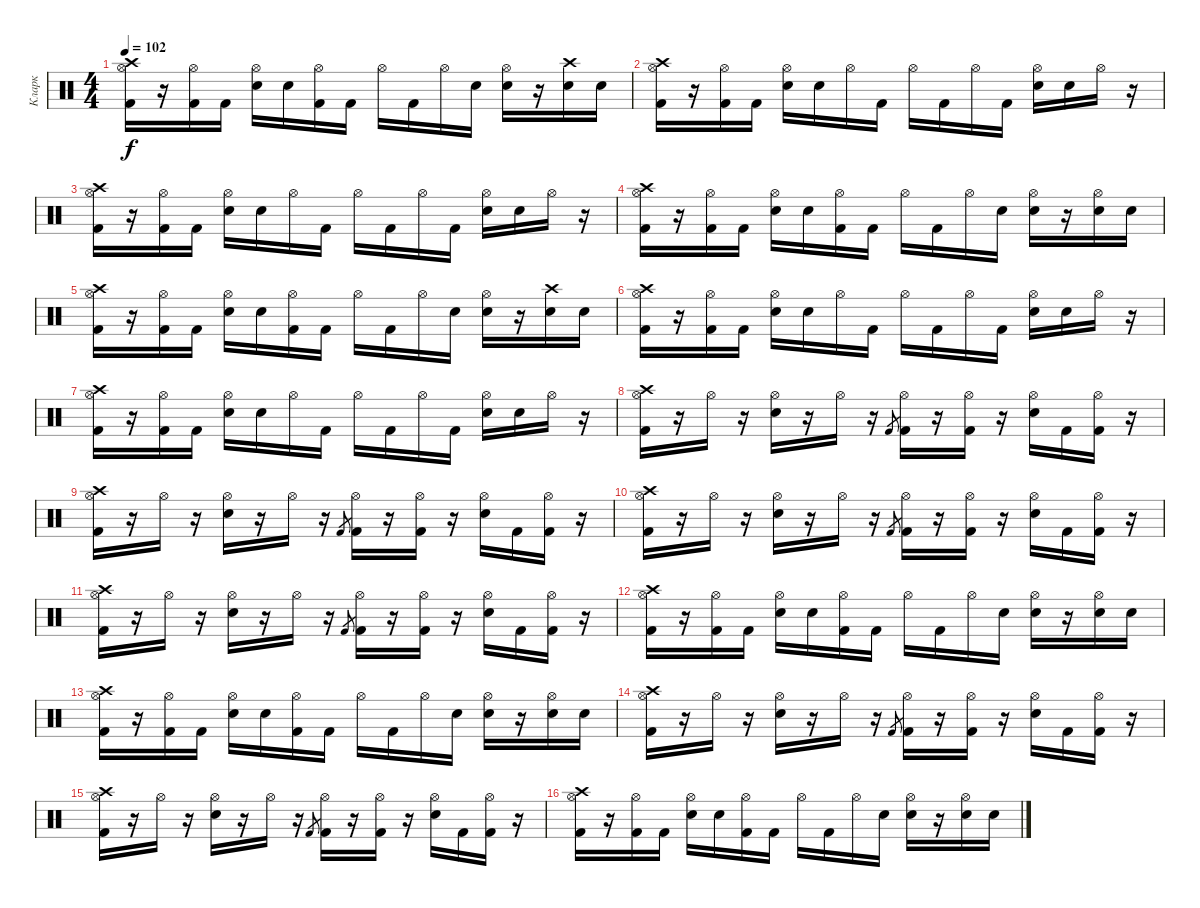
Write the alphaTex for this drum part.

\track ("Кларк" "Кларк") {instrument percussion}
\staff {score}
\articulation defaults
\ts (4 4)
\tempo 102
\clef neutral
\ks c
("Hi-Hat (open)" "Crash high (hit)" "Kick (hit) 2").16{dy f} r.16 ("Hi-Hat (open)" "Kick (hit) 2").16 "Kick (hit) 2".16 ("Hi-Hat (open)" "Electric Snare (hit)").16 "Electric Snare (hit)".16 ("Hi-Hat (open)" "Kick (hit) 2").16 "Kick (hit) 2".16 "Hi-Hat (open)".16 "Kick (hit) 2".16 "Hi-Hat (open)".16 "Electric Snare (hit)".16 ("Hi-Hat (open)" "Electric Snare (hit)").16 r.16 ("Crash high (hit)" "Electric Snare (hit)").16 "Electric Snare (hit)".16 |
("Hi-Hat (open)" "Crash high (hit)" "Kick (hit) 2").16 r.16 ("Hi-Hat (open)" "Kick (hit) 2").16 "Kick (hit) 2".16 ("Hi-Hat (open)" "Electric Snare (hit)").16 "Electric Snare (hit)".16 "Hi-Hat (open)".16 "Kick (hit) 2".16 "Hi-Hat (open)".16 "Kick (hit) 2".16 "Hi-Hat (open)".16 "Kick (hit) 2".16 ("Hi-Hat (open)" "Electric Snare (hit)").16 "Electric Snare (hit)".16 "Hi-Hat (open)".16 r.16 |
("Hi-Hat (open)" "Crash high (hit)" "Kick (hit) 2").16 r.16 ("Hi-Hat (open)" "Kick (hit) 2").16 "Kick (hit) 2".16 ("Hi-Hat (open)" "Electric Snare (hit)").16 "Electric Snare (hit)".16 "Hi-Hat (open)".16 "Kick (hit) 2".16 "Hi-Hat (open)".16 "Kick (hit) 2".16 "Hi-Hat (open)".16 "Kick (hit) 2".16 ("Hi-Hat (open)" "Electric Snare (hit)").16 "Electric Snare (hit)".16 "Hi-Hat (open)".16 r.16 |
("Hi-Hat (open)" "Crash high (hit)" "Kick (hit) 2").16 r.16 ("Hi-Hat (open)" "Kick (hit) 2").16 "Kick (hit) 2".16 ("Hi-Hat (open)" "Electric Snare (hit)").16 "Electric Snare (hit)".16 ("Hi-Hat (open)" "Kick (hit) 2").16 "Kick (hit) 2".16 "Hi-Hat (open)".16 "Kick (hit) 2".16 "Hi-Hat (open)".16 "Electric Snare (hit)".16 ("Hi-Hat (open)" "Electric Snare (hit)").16 r.16 ("Hi-Hat (open)" "Electric Snare (hit)").16 "Electric Snare (hit)".16 |
("Hi-Hat (open)" "Crash high (hit)" "Kick (hit) 2").16 r.16 ("Hi-Hat (open)" "Kick (hit) 2").16 "Kick (hit) 2".16 ("Hi-Hat (open)" "Electric Snare (hit)").16 "Electric Snare (hit)".16 ("Hi-Hat (open)" "Kick (hit) 2").16 "Kick (hit) 2".16 "Hi-Hat (open)".16 "Kick (hit) 2".16 "Hi-Hat (open)".16 "Electric Snare (hit)".16 ("Hi-Hat (open)" "Electric Snare (hit)").16 r.16 ("Crash high (hit)" "Electric Snare (hit)").16 "Electric Snare (hit)".16 |
("Hi-Hat (open)" "Crash high (hit)" "Kick (hit) 2").16 r.16 ("Hi-Hat (open)" "Kick (hit) 2").16 "Kick (hit) 2".16 ("Hi-Hat (open)" "Electric Snare (hit)").16 "Electric Snare (hit)".16 "Hi-Hat (open)".16 "Kick (hit) 2".16 "Hi-Hat (open)".16 "Kick (hit) 2".16 "Hi-Hat (open)".16 "Kick (hit) 2".16 ("Hi-Hat (open)" "Electric Snare (hit)").16 "Electric Snare (hit)".16 "Hi-Hat (open)".16 r.16 |
("Hi-Hat (open)" "Crash high (hit)" "Kick (hit) 2").16 r.16 ("Hi-Hat (open)" "Kick (hit) 2").16 "Kick (hit) 2".16 ("Hi-Hat (open)" "Electric Snare (hit)").16 "Electric Snare (hit)".16 "Hi-Hat (open)".16 "Kick (hit) 2".16 "Hi-Hat (open)".16 "Kick (hit) 2".16 "Hi-Hat (open)".16 "Kick (hit) 2".16 ("Hi-Hat (open)" "Electric Snare (hit)").16 "Electric Snare (hit)".16 "Hi-Hat (open)".16 r.16 |
("Hi-Hat (open)" "Crash high (hit)" "Kick (hit) 2").16 r.16 "Hi-Hat (open)".16 r.16 ("Hi-Hat (open)" "Electric Snare (hit)").16 r.16 "Hi-Hat (open)".16 r.16 "Kick (hit) 2".8{gr} ("Hi-Hat (open)" "Kick (hit) 2").16 r.16 ("Hi-Hat (open)" "Kick (hit) 2").16 r.16 ("Hi-Hat (open)" "Electric Snare (hit)").16 "Kick (hit) 2".16 ("Hi-Hat (open)" "Kick (hit) 2").16 r.16 |
("Hi-Hat (open)" "Crash high (hit)" "Kick (hit) 2").16 r.16 "Hi-Hat (open)".16 r.16 ("Hi-Hat (open)" "Electric Snare (hit)").16 r.16 "Hi-Hat (open)".16 r.16 "Kick (hit) 2".8{gr} ("Hi-Hat (open)" "Kick (hit) 2").16 r.16 ("Hi-Hat (open)" "Kick (hit) 2").16 r.16 ("Hi-Hat (open)" "Electric Snare (hit)").16 "Kick (hit) 2".16 ("Hi-Hat (open)" "Kick (hit) 2").16 r.16 |
("Hi-Hat (open)" "Crash high (hit)" "Kick (hit) 2").16 r.16 "Hi-Hat (open)".16 r.16 ("Hi-Hat (open)" "Electric Snare (hit)").16 r.16 "Hi-Hat (open)".16 r.16 "Kick (hit) 2".8{gr} ("Hi-Hat (open)" "Kick (hit) 2").16 r.16 ("Hi-Hat (open)" "Kick (hit) 2").16 r.16 ("Hi-Hat (open)" "Electric Snare (hit)").16 "Kick (hit) 2".16 ("Hi-Hat (open)" "Kick (hit) 2").16 r.16 |
("Hi-Hat (open)" "Crash high (hit)" "Kick (hit) 2").16 r.16 "Hi-Hat (open)".16 r.16 ("Hi-Hat (open)" "Electric Snare (hit)").16 r.16 "Hi-Hat (open)".16 r.16 "Kick (hit) 2".8{gr} ("Hi-Hat (open)" "Kick (hit) 2").16 r.16 ("Hi-Hat (open)" "Kick (hit) 2").16 r.16 ("Hi-Hat (open)" "Electric Snare (hit)").16 "Kick (hit) 2".16 ("Hi-Hat (open)" "Kick (hit) 2").16 r.16 |
("Hi-Hat (open)" "Crash high (hit)" "Kick (hit) 2").16 r.16 ("Hi-Hat (open)" "Kick (hit) 2").16 "Kick (hit) 2".16 ("Hi-Hat (open)" "Electric Snare (hit)").16 "Electric Snare (hit)".16 ("Hi-Hat (open)" "Kick (hit) 2").16 "Kick (hit) 2".16 "Hi-Hat (open)".16 "Kick (hit) 2".16 "Hi-Hat (open)".16 "Electric Snare (hit)".16 ("Hi-Hat (open)" "Electric Snare (hit)").16 r.16 ("Hi-Hat (open)" "Electric Snare (hit)").16 "Electric Snare (hit)".16 |
("Hi-Hat (open)" "Crash high (hit)" "Kick (hit) 2").16 r.16 ("Hi-Hat (open)" "Kick (hit) 2").16 "Kick (hit) 2".16 ("Hi-Hat (open)" "Electric Snare (hit)").16 "Electric Snare (hit)".16 ("Hi-Hat (open)" "Kick (hit) 2").16 "Kick (hit) 2".16 "Hi-Hat (open)".16 "Kick (hit) 2".16 "Hi-Hat (open)".16 "Electric Snare (hit)".16 ("Hi-Hat (open)" "Electric Snare (hit)").16 r.16 ("Hi-Hat (open)" "Electric Snare (hit)").16 "Electric Snare (hit)".16 |
("Hi-Hat (open)" "Crash high (hit)" "Kick (hit) 2").16 r.16 "Hi-Hat (open)".16 r.16 ("Hi-Hat (open)" "Electric Snare (hit)").16 r.16 "Hi-Hat (open)".16 r.16 "Kick (hit) 2".8{gr} ("Hi-Hat (open)" "Kick (hit) 2").16 r.16 ("Hi-Hat (open)" "Kick (hit) 2").16 r.16 ("Hi-Hat (open)" "Electric Snare (hit)").16 "Kick (hit) 2".16 ("Hi-Hat (open)" "Kick (hit) 2").16 r.16 |
("Hi-Hat (open)" "Crash high (hit)" "Kick (hit) 2").16 r.16 "Hi-Hat (open)".16 r.16 ("Hi-Hat (open)" "Electric Snare (hit)").16 r.16 "Hi-Hat (open)".16 r.16 "Kick (hit) 2".8{gr} ("Hi-Hat (open)" "Kick (hit) 2").16 r.16 ("Hi-Hat (open)" "Kick (hit) 2").16 r.16 ("Hi-Hat (open)" "Electric Snare (hit)").16 "Kick (hit) 2".16 ("Hi-Hat (open)" "Kick (hit) 2").16 r.16 |
("Hi-Hat (open)" "Crash high (hit)" "Kick (hit) 2").16 r.16 ("Hi-Hat (open)" "Kick (hit) 2").16 "Kick (hit) 2".16 ("Hi-Hat (open)" "Electric Snare (hit)").16 "Electric Snare (hit)".16 ("Hi-Hat (open)" "Kick (hit) 2").16 "Kick (hit) 2".16 "Hi-Hat (open)".16 "Kick (hit) 2".16 "Hi-Hat (open)".16 "Electric Snare (hit)".16 ("Hi-Hat (open)" "Electric Snare (hit)").16 r.16 ("Hi-Hat (open)" "Electric Snare (hit)").16 "Electric Snare (hit)".16
